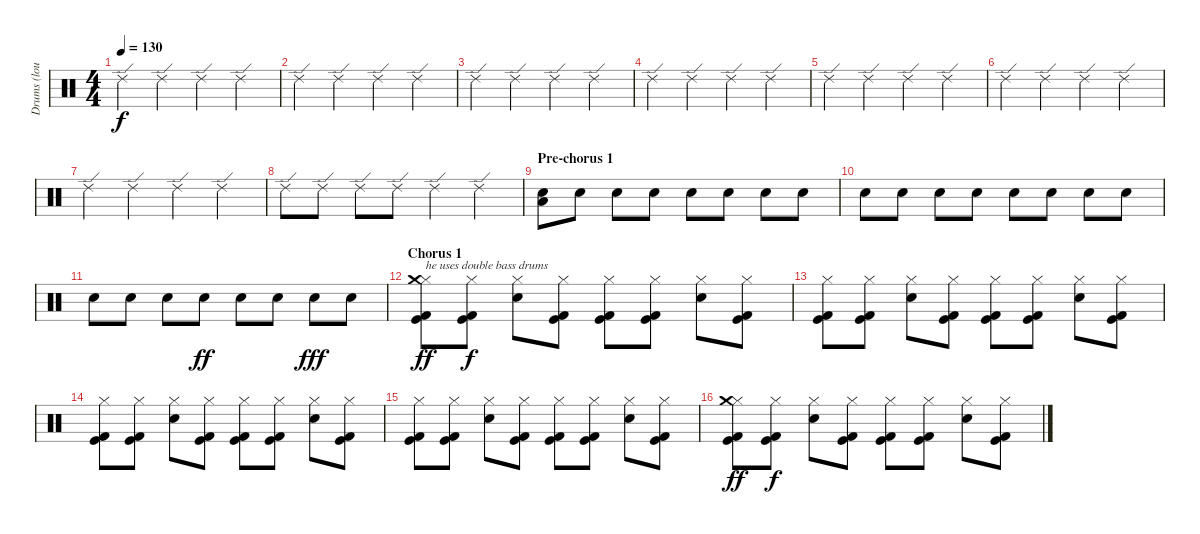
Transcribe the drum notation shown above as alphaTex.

\track ("Drums (loud!)" "Drums (lou") {instrument percussion}
\staff {score}
\articulation defaults
\ts (4 4)
\tempo 130
\clef neutral
\ks c "Ride (edge) 2".4{dy f} "Ride (edge) 2".4 "Ride (edge) 2".4 "Ride (edge) 2".4
|
"Ride (edge) 2".4 "Ride (edge) 2".4 "Ride (edge) 2".4 "Ride (edge) 2".4 |
"Ride (edge) 2".4 "Ride (edge) 2".4 "Ride (edge) 2".4 "Ride (edge) 2".4 |
"Ride (edge) 2".4 "Ride (edge) 2".4 "Ride (edge) 2".4 "Ride (edge) 2".4 |
"Ride (edge) 2".4 "Ride (edge) 2".4 "Ride (edge) 2".4 "Ride (edge) 2".4 |
"Ride (edge) 2".4 "Ride (edge) 2".4 "Ride (edge) 2".4 "Ride (edge) 2".4 |
"Ride (edge) 2".4 "Ride (edge) 2".4 "Ride (edge) 2".4 "Ride (edge) 2".4 |
"Ride (edge) 2".8 "Ride (edge) 2".8 "Ride (edge) 2".8 "Ride (edge) 2".8 "Ride (edge) 2".4 "Ride (edge) 2".4 |
\section ("" "Pre-chorus 1")
("Low Tom (hit)" "Snare (hit) 2").8 "Snare (hit) 2".8 "Snare (hit) 2".8 "Snare (hit) 2".8 "Snare (hit) 2".8 "Snare (hit) 2".8 "Snare (hit) 2".8 "Snare (hit) 2".8 |
"Snare (hit) 2".8 "Snare (hit) 2".8 "Snare (hit) 2".8 "Snare (hit) 2".8 "Snare (hit) 2".8 "Snare (hit) 2".8 "Snare (hit) 2".8 "Snare (hit) 2".8 |
"Snare (hit) 2".8 "Snare (hit) 2".8 "Snare (hit) 2".8 "Snare (hit) 2".8{dy ff} "Snare (hit) 2".8 "Snare (hit) 2".8 "Snare (hit) 2".8{dy fff} "Snare (hit) 2".8 |
\section ("" "Chorus 1")
("Hi-Hat (closed)" "Crash medium (hit)" "Kick (hit) 2" "Kick (hit)").8{txt "he uses double bass drums" dy ff} ("Hi-Hat (closed)" "Kick (hit) 2" "Kick (hit)").8{dy f} ("Hi-Hat (closed)" "Snare (hit) 2").8 ("Hi-Hat (closed)" "Kick (hit) 2" "Kick (hit)").8 ("Hi-Hat (closed)" "Kick (hit) 2" "Kick (hit)").8 ("Hi-Hat (closed)" "Kick (hit) 2" "Kick (hit)").8 ("Hi-Hat (closed)" "Snare (hit) 2").8 ("Hi-Hat (closed)" "Kick (hit) 2" "Kick (hit)").8 |
("Hi-Hat (closed)" "Kick (hit) 2" "Kick (hit)").8 ("Hi-Hat (closed)" "Kick (hit) 2" "Kick (hit)").8 ("Hi-Hat (closed)" "Snare (hit) 2").8 ("Hi-Hat (closed)" "Kick (hit) 2" "Kick (hit)").8 ("Hi-Hat (closed)" "Kick (hit) 2" "Kick (hit)").8 ("Hi-Hat (closed)" "Kick (hit) 2" "Kick (hit)").8 ("Hi-Hat (closed)" "Snare (hit) 2").8 ("Hi-Hat (closed)" "Kick (hit) 2" "Kick (hit)").8 |
("Hi-Hat (closed)" "Kick (hit) 2" "Kick (hit)").8 ("Hi-Hat (closed)" "Kick (hit) 2" "Kick (hit)").8 ("Hi-Hat (closed)" "Snare (hit) 2").8 ("Hi-Hat (closed)" "Kick (hit) 2" "Kick (hit)").8 ("Hi-Hat (closed)" "Kick (hit) 2" "Kick (hit)").8 ("Hi-Hat (closed)" "Kick (hit) 2" "Kick (hit)").8 ("Hi-Hat (closed)" "Snare (hit) 2").8 ("Hi-Hat (closed)" "Kick (hit) 2" "Kick (hit)").8 |
("Hi-Hat (closed)" "Kick (hit) 2" "Kick (hit)").8 ("Hi-Hat (closed)" "Kick (hit) 2" "Kick (hit)").8 ("Hi-Hat (closed)" "Snare (hit) 2").8 ("Hi-Hat (closed)" "Kick (hit) 2" "Kick (hit)").8 ("Hi-Hat (closed)" "Kick (hit) 2" "Kick (hit)").8 ("Hi-Hat (closed)" "Kick (hit) 2" "Kick (hit)").8 ("Hi-Hat (closed)" "Snare (hit) 2").8 ("Hi-Hat (closed)" "Kick (hit) 2" "Kick (hit)").8 |
("Hi-Hat (closed)" "Crash medium (hit)" "Kick (hit) 2" "Kick (hit)").8{dy ff} ("Hi-Hat (closed)" "Kick (hit) 2" "Kick (hit)").8{dy f} ("Hi-Hat (closed)" "Snare (hit) 2").8 ("Hi-Hat (closed)" "Kick (hit) 2" "Kick (hit)").8 ("Hi-Hat (closed)" "Kick (hit) 2" "Kick (hit)").8 ("Hi-Hat (closed)" "Kick (hit) 2" "Kick (hit)").8 ("Hi-Hat (closed)" "Snare (hit) 2").8 ("Hi-Hat (closed)" "Kick (hit) 2" "Kick (hit)").8
